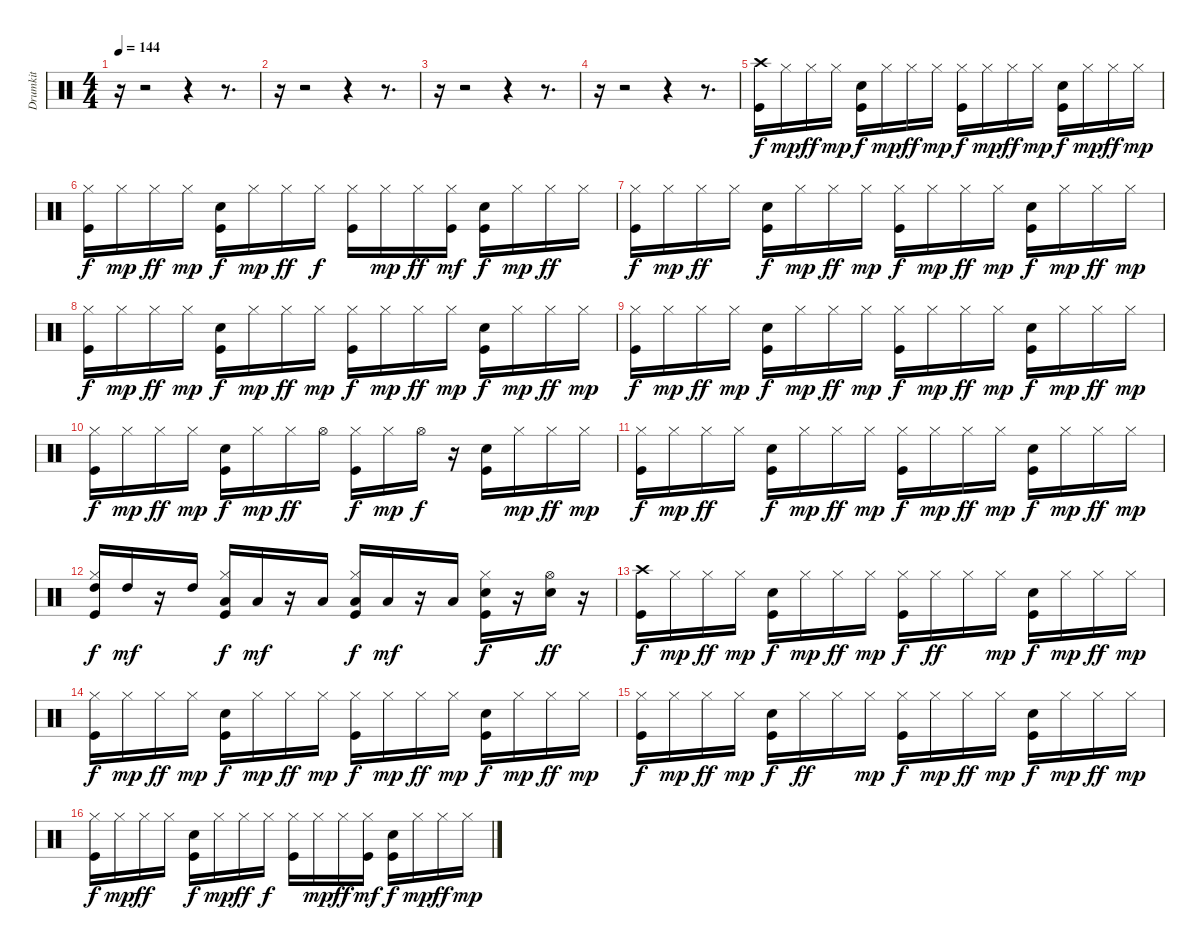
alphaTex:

\track ("Drumkit" "Drumkit") {instrument percussion}
\staff {score}
\articulation defaults
\ts (4 4)
\tempo 144
\clef neutral
\ks c
r.16{dy f} r.2 r.4 r.8{d} |
r.16 r.2 r.4 r.8{d} |
r.16 r.2 r.4 r.8{d} |
r.16 r.2 r.4 r.8{d} |
("Kick (hit)" "Crash high (hit)").16 "Hi-Hat (closed)".16{dy mp} "Hi-Hat (closed)".16{dy ff} "Hi-Hat (closed)".16{dy mp} ("Kick (hit)" "Snare (hit) 2").16{dy f} "Hi-Hat (closed)".16{dy mp} "Hi-Hat (closed)".16{dy ff} "Hi-Hat (closed)".16{dy mp} ("Kick (hit)" "Hi-Hat (closed)").16{dy f} "Hi-Hat (closed)".16{dy mp} "Hi-Hat (closed)".16{dy ff} "Hi-Hat (closed)".16{dy mp} ("Kick (hit)" "Snare (hit) 2").16{dy f} "Hi-Hat (closed)".16{dy mp} "Hi-Hat (closed)".16{dy ff} "Hi-Hat (closed)".16{dy mp} |
("Kick (hit)" "Hi-Hat (closed)").16{dy f} "Hi-Hat (closed)".16{dy mp} "Hi-Hat (closed)".16{dy ff} "Hi-Hat (closed)".16{dy mp} ("Kick (hit)" "Snare (hit) 2").16{dy f} "Hi-Hat (closed)".16{dy mp} "Hi-Hat (closed)".16{dy ff} "Hi-Hat (closed)".16{dy f} ("Kick (hit)" "Hi-Hat (closed)").16 "Hi-Hat (closed)".16{dy mp} "Hi-Hat (closed)".16{dy ff} ("Kick (hit)" "Hi-Hat (closed)").16{dy mf} ("Kick (hit)" "Snare (hit) 2").16{dy f} "Hi-Hat (closed)".16{dy mp} "Hi-Hat (closed)".16{dy ff} "Hi-Hat (closed)".16 |
("Kick (hit)" "Hi-Hat (closed)").16{dy f} "Hi-Hat (closed)".16{dy mp} "Hi-Hat (closed)".16{dy ff} "Hi-Hat (closed)".16 ("Kick (hit)" "Snare (hit) 2").16{dy f} "Hi-Hat (closed)".16{dy mp} "Hi-Hat (closed)".16{dy ff} "Hi-Hat (closed)".16{dy mp} ("Kick (hit)" "Hi-Hat (closed)").16{dy f} "Hi-Hat (closed)".16{dy mp} "Hi-Hat (closed)".16{dy ff} "Hi-Hat (closed)".16{dy mp} ("Kick (hit)" "Snare (hit) 2").16{dy f} "Hi-Hat (closed)".16{dy mp} "Hi-Hat (closed)".16{dy ff} "Hi-Hat (closed)".16{dy mp} |
("Kick (hit)" "Hi-Hat (closed)").16{dy f} "Hi-Hat (closed)".16{dy mp} "Hi-Hat (closed)".16{dy ff} "Hi-Hat (closed)".16{dy mp} ("Kick (hit)" "Snare (hit) 2").16{dy f} "Hi-Hat (closed)".16{dy mp} "Hi-Hat (closed)".16{dy ff} "Hi-Hat (closed)".16{dy mp} ("Kick (hit)" "Hi-Hat (closed)").16{dy f} "Hi-Hat (closed)".16{dy mp} "Hi-Hat (closed)".16{dy ff} "Hi-Hat (closed)".16{dy mp} ("Kick (hit)" "Snare (hit) 2").16{dy f} "Hi-Hat (closed)".16{dy mp} "Hi-Hat (closed)".16{dy ff} "Hi-Hat (closed)".16{dy mp} |
("Kick (hit)" "Hi-Hat (closed)").16{dy f} "Hi-Hat (closed)".16{dy mp} "Hi-Hat (closed)".16{dy ff} "Hi-Hat (closed)".16{dy mp} ("Kick (hit)" "Snare (hit) 2").16{dy f} "Hi-Hat (closed)".16{dy mp} "Hi-Hat (closed)".16{dy ff} "Hi-Hat (closed)".16{dy mp} ("Kick (hit)" "Hi-Hat (closed)").16{dy f} "Hi-Hat (closed)".16{dy mp} "Hi-Hat (closed)".16{dy ff} "Hi-Hat (closed)".16{dy mp} ("Kick (hit)" "Snare (hit) 2").16{dy f} "Hi-Hat (closed)".16{dy mp} "Hi-Hat (closed)".16{dy ff} "Hi-Hat (closed)".16{dy mp} |
("Kick (hit)" "Hi-Hat (closed)").16{dy f} "Hi-Hat (closed)".16{dy mp} "Hi-Hat (closed)".16{dy ff} "Hi-Hat (closed)".16{dy mp} ("Kick (hit)" "Snare (hit) 2").16{dy f} "Hi-Hat (closed)".16{dy mp} "Hi-Hat (closed)".16{dy ff} "Hi-Hat (open)".16 ("Kick (hit)" "Hi-Hat (closed)").16{dy f} "Hi-Hat (closed)".16{dy mp} "Hi-Hat (open)".16{dy f} r.16 ("Kick (hit)" "Snare (hit) 2").16 "Hi-Hat (closed)".16{dy mp} "Hi-Hat (closed)".16{dy ff} "Hi-Hat (closed)".16{dy mp} |
("Kick (hit)" "Hi-Hat (closed)").16{dy f} "Hi-Hat (closed)".16{dy mp} "Hi-Hat (closed)".16{dy ff} "Hi-Hat (closed)".16 ("Kick (hit)" "Snare (hit) 2").16{dy f} "Hi-Hat (closed)".16{dy mp} "Hi-Hat (closed)".16{dy ff} "Hi-Hat (closed)".16{dy mp} ("Kick (hit)" "Hi-Hat (closed)").16{dy f} "Hi-Hat (closed)".16{dy mp} "Hi-Hat (closed)".16{dy ff} "Hi-Hat (closed)".16{dy mp} ("Kick (hit)" "Snare (hit) 2").16{dy f} "Hi-Hat (closed)".16{dy mp} "Hi-Hat (closed)".16{dy ff} "Hi-Hat (closed)".16{dy mp} |
("Kick (hit)" "Hi-Hat (closed)" "High Tom (hit)").16{dy f} "High Tom (hit)".16{dy mf} r.16 "High Tom (hit)".16 ("Kick (hit)" "Hi-Hat (closed)" "Low Tom (hit)").16{dy f} "Low Tom (hit)".16{dy mf} r.16 "Low Tom (hit)".16 ("Kick (hit)" "Low Floor Tom (hit)" "Hi-Hat (closed)").16{dy f} "Low Floor Tom (hit)".16{dy mf} r.16 "Low Floor Tom (hit)".16 ("Kick (hit)" "Snare (hit) 2" "Hi-Hat (closed)").16{dy f} r.16 ("Snare (hit) 2" "Hi-Hat (open)").16{dy ff} r.16 |
("Kick (hit)" "Crash high (hit)").16{dy f} "Hi-Hat (closed)".16{dy mp} "Hi-Hat (closed)".16{dy ff} "Hi-Hat (closed)".16{dy mp} ("Kick (hit)" "Snare (hit) 2").16{dy f} "Hi-Hat (closed)".16{dy mp} "Hi-Hat (closed)".16{dy ff} "Hi-Hat (closed)".16{dy mp} ("Kick (hit)" "Hi-Hat (closed)").16{dy f} "Hi-Hat (closed)".16{dy ff} "Hi-Hat (closed)".16 "Hi-Hat (closed)".16{dy mp} ("Kick (hit)" "Snare (hit) 2").16{dy f} "Hi-Hat (closed)".16{dy mp} "Hi-Hat (closed)".16{dy ff} "Hi-Hat (closed)".16{dy mp} |
("Kick (hit)" "Hi-Hat (closed)").16{dy f} "Hi-Hat (closed)".16{dy mp} "Hi-Hat (closed)".16{dy ff} "Hi-Hat (closed)".16{dy mp} ("Kick (hit)" "Snare (hit) 2").16{dy f} "Hi-Hat (closed)".16{dy mp} "Hi-Hat (closed)".16{dy ff} "Hi-Hat (closed)".16{dy mp} ("Kick (hit)" "Hi-Hat (closed)").16{dy f} "Hi-Hat (closed)".16{dy mp} "Hi-Hat (closed)".16{dy ff} "Hi-Hat (closed)".16{dy mp} ("Kick (hit)" "Snare (hit) 2").16{dy f} "Hi-Hat (closed)".16{dy mp} "Hi-Hat (closed)".16{dy ff} "Hi-Hat (closed)".16{dy mp} |
("Kick (hit)" "Hi-Hat (closed)").16{dy f} "Hi-Hat (closed)".16{dy mp} "Hi-Hat (closed)".16{dy ff} "Hi-Hat (closed)".16{dy mp} ("Kick (hit)" "Snare (hit) 2").16{dy f} "Hi-Hat (closed)".16{dy ff} "Hi-Hat (closed)".16 "Hi-Hat (closed)".16{dy mp} ("Kick (hit)" "Hi-Hat (closed)").16{dy f} "Hi-Hat (closed)".16{dy mp} "Hi-Hat (closed)".16{dy ff} "Hi-Hat (closed)".16{dy mp} ("Kick (hit)" "Snare (hit) 2").16{dy f} "Hi-Hat (closed)".16{dy mp} "Hi-Hat (closed)".16{dy ff} "Hi-Hat (closed)".16{dy mp} |
("Kick (hit)" "Hi-Hat (closed)").16{dy f} "Hi-Hat (closed)".16{dy mp} "Hi-Hat (closed)".16{dy ff} "Hi-Hat (closed)".16 ("Kick (hit)" "Snare (hit) 2").16{dy f} "Hi-Hat (closed)".16{dy mp} "Hi-Hat (closed)".16{dy ff} "Hi-Hat (closed)".16{dy f} ("Kick (hit)" "Hi-Hat (closed)").16 "Hi-Hat (closed)".16{dy mp} "Hi-Hat (closed)".16{dy ff} ("Kick (hit)" "Hi-Hat (closed)").16{dy mf} ("Kick (hit)" "Snare (hit) 2").16{dy f} "Hi-Hat (closed)".16{dy mp} "Hi-Hat (closed)".16{dy ff} "Hi-Hat (closed)".16{dy mp}
